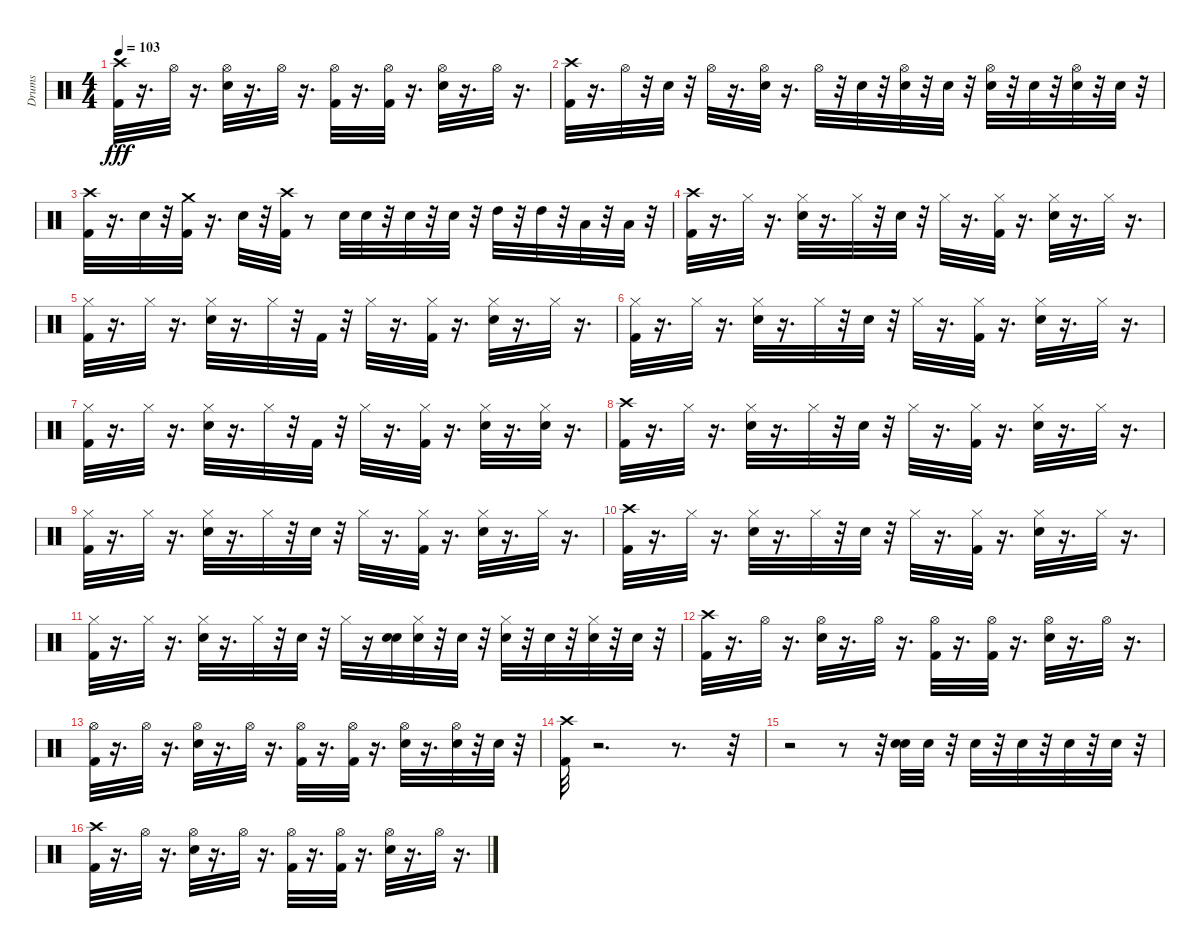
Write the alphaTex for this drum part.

\track ("Drums" "Drums") {instrument percussion}
\staff {score}
\articulation defaults
\ts (4 4)
\tempo 103
\clef neutral
\ks c
("Crash high (hit)" "Kick (hit) 2").32{dy fff} r.16{d} "Hi-Hat (open)".32 r.16{d} ("Electric Snare (hit)" "Hi-Hat (open)").32 r.16{d} "Hi-Hat (open)".32 r.16{d} ("Hi-Hat (open)" "Kick (hit) 2").32 r.16{d} ("Hi-Hat (open)" "Kick (hit) 2").32 r.16{d} ("Hi-Hat (open)" "Electric Snare (hit)").32 r.16{d} "Hi-Hat (open)".32 r.16{d} |
("Kick (hit) 2" "Crash high (hit)").32 r.16{d} "Hi-Hat (open)".32 r.32 "Electric Snare (hit)".32 r.32 "Hi-Hat (open)".32 r.16{d} ("Hi-Hat (open)" "Electric Snare (hit)").32 r.16{d} "Hi-Hat (open)".32 r.32 "Electric Snare (hit)".32 r.32 ("Hi-Hat (open)" "Electric Snare (hit)").32 r.32 "Electric Snare (hit)".32 r.32 ("Electric Snare (hit)" "Hi-Hat (open)").32 r.32 "Electric Snare (hit)".32 r.32 ("Hi-Hat (open)" "Electric Snare (hit)").32 r.32 "Electric Snare (hit)".32 r.32 |
("Crash high (hit)" "Kick (hit) 2").32 r.16{d} "Electric Snare (hit)".32 r.32 ("Crash medium (hit)" "Kick (hit) 2").32 r.16{d} "Electric Snare (hit)".32 r.32 ("Kick (hit) 2" "Crash high (hit)").32 r.8 "Electric Snare (hit)".32 "Electric Snare (hit)".32 r.32 "Electric Snare (hit)".32 r.32 "Electric Snare (hit)".32 r.32 "High Tom (hit)".32 r.32 "High Tom (hit)".32 r.32 "Low Tom (hit)".32 r.32 "Low Floor Tom (hit)".32 r.32 |
("Crash high (hit)" "Kick (hit) 2").32 r.16{d} "Hi-Hat (closed)".32 r.16{d} ("Electric Snare (hit)" "Hi-Hat (closed)").32 r.16{d} "Hi-Hat (closed)".32 r.32 "Electric Snare (hit)".32 r.32 "Hi-Hat (closed)".32 r.16{d} ("Hi-Hat (closed)" "Kick (hit) 2").32 r.16{d} ("Hi-Hat (closed)" "Electric Snare (hit)").32 r.16{d} "Hi-Hat (closed)".32 r.16{d} |
("Kick (hit) 2" "Hi-Hat (closed)").32 r.16{d} "Hi-Hat (closed)".32 r.16{d} ("Electric Snare (hit)" "Hi-Hat (closed)").32 r.16{d} "Hi-Hat (closed)".32 r.32 "Kick (hit) 2".32 r.32 "Hi-Hat (closed)".32 r.16{d} ("Kick (hit) 2" "Hi-Hat (closed)").32 r.16{d} ("Electric Snare (hit)" "Hi-Hat (closed)").32 r.16{d} "Hi-Hat (closed)".32 r.16{d} |
("Kick (hit) 2" "Hi-Hat (closed)").32 r.16{d} "Hi-Hat (closed)".32 r.16{d} ("Hi-Hat (closed)" "Electric Snare (hit)").32 r.16{d} "Hi-Hat (closed)".32 r.32 "Electric Snare (hit)".32 r.32 "Hi-Hat (closed)".32 r.16{d} ("Kick (hit) 2" "Hi-Hat (closed)").32 r.16{d} ("Hi-Hat (closed)" "Electric Snare (hit)").32 r.16{d} "Hi-Hat (closed)".32 r.16{d} |
("Kick (hit) 2" "Hi-Hat (closed)").32 r.16{d} "Hi-Hat (closed)".32 r.16{d} ("Electric Snare (hit)" "Hi-Hat (closed)").32 r.16{d} "Hi-Hat (closed)".32 r.32 "Kick (hit) 2".32 r.32 "Hi-Hat (closed)".32 r.16{d} ("Kick (hit) 2" "Hi-Hat (closed)").32 r.16{d} ("Hi-Hat (closed)" "Electric Snare (hit)").32 r.16{d} ("Hi-Hat (closed)" "Electric Snare (hit)").32 r.16{d} |
("Crash high (hit)" "Kick (hit) 2").32 r.16{d} "Hi-Hat (closed)".32 r.16{d} ("Hi-Hat (closed)" "Electric Snare (hit)").32 r.16{d} "Hi-Hat (closed)".32 r.32 "Electric Snare (hit)".32 r.32 "Hi-Hat (closed)".32 r.16{d} ("Hi-Hat (closed)" "Kick (hit) 2").32 r.16{d} ("Hi-Hat (closed)" "Electric Snare (hit)").32 r.16{d} "Hi-Hat (closed)".32 r.16{d} |
("Hi-Hat (closed)" "Kick (hit) 2").32 r.16{d} "Hi-Hat (closed)".32 r.16{d} ("Hi-Hat (closed)" "Electric Snare (hit)").32 r.16{d} "Hi-Hat (closed)".32 r.32 "Electric Snare (hit)".32 r.32 "Hi-Hat (closed)".32 r.16{d} ("Kick (hit) 2" "Hi-Hat (closed)").32 r.16{d} ("Electric Snare (hit)" "Hi-Hat (closed)").32 r.16{d} "Hi-Hat (closed)".32 r.16{d} |
("Crash high (hit)" "Kick (hit) 2").32 r.16{d} "Hi-Hat (closed)".32 r.16{d} ("Hi-Hat (closed)" "Electric Snare (hit)").32 r.16{d} "Hi-Hat (closed)".32 r.32 "Electric Snare (hit)".32 r.32 "Hi-Hat (closed)".32 r.16{d} ("Hi-Hat (closed)" "Kick (hit) 2").32 r.16{d} ("Electric Snare (hit)" "Hi-Hat (closed)").32 r.16{d} "Hi-Hat (closed)".32 r.16{d} |
("Kick (hit) 2" "Hi-Hat (closed)").32 r.16{d} "Hi-Hat (closed)".32 r.16{d} ("Hi-Hat (closed)" "Electric Snare (hit)").32 r.16{d} "Hi-Hat (closed)".32 r.32 "Electric Snare (hit)".32 r.32 "Hi-Hat (closed)".32 r.16 ("Electric Snare (hit)" "Electric Snare (hit)").32 ("Hi-Hat (closed)" "Electric Snare (hit)").32 r.32 "Electric Snare (hit)".32 r.32 ("Electric Snare (hit)" "Hi-Hat (closed)").32 r.32 "Electric Snare (hit)".32 r.32 ("Hi-Hat (closed)" "Electric Snare (hit)").32 r.32 "Electric Snare (hit)".32 r.32 |
("Kick (hit) 2" "Crash high (hit)").32 r.16{d} "Hi-Hat (open)".32 r.16{d} ("Hi-Hat (open)" "Electric Snare (hit)").32 r.16{d} "Hi-Hat (open)".32 r.16{d} ("Kick (hit) 2" "Hi-Hat (open)").32 r.16{d} ("Kick (hit) 2" "Hi-Hat (open)").32 r.16{d} ("Hi-Hat (open)" "Electric Snare (hit)").32 r.16{d} "Hi-Hat (open)".32 r.16{d} |
("Hi-Hat (open)" "Kick (hit) 2").32 r.16{d} "Hi-Hat (open)".32 r.16{d} ("Hi-Hat (open)" "Electric Snare (hit)").32 r.16{d} "Hi-Hat (open)".32 r.16{d} ("Kick (hit) 2" "Hi-Hat (open)").32 r.16{d} ("Hi-Hat (open)" "Kick (hit) 2").32 r.16{d} ("Hi-Hat (open)" "Electric Snare (hit)").32 r.16{d} ("Hi-Hat (open)" "Electric Snare (hit)").32 r.32 "Electric Snare (hit)".32 r.32 |
("Kick (hit) 2" "Crash high (hit)").32 r.2{d} r.8{d} r.32 |
r.2 r.8 r.32 ("Electric Snare (hit)" "Electric Snare (hit)").32 "Electric Snare (hit)".32 r.32 "Electric Snare (hit)".32 r.32 "Electric Snare (hit)".32 r.32 "Electric Snare (hit)".32 r.32 "Electric Snare (hit)".32 r.32 |
("Crash high (hit)" "Kick (hit) 2").32 r.16{d} "Hi-Hat (open)".32 r.16{d} ("Hi-Hat (open)" "Electric Snare (hit)").32 r.16{d} "Hi-Hat (open)".32 r.16{d} ("Hi-Hat (open)" "Kick (hit) 2").32 r.16{d} ("Hi-Hat (open)" "Kick (hit) 2").32 r.16{d} ("Electric Snare (hit)" "Hi-Hat (open)").32 r.16{d} "Hi-Hat (open)".32 r.16{d}
